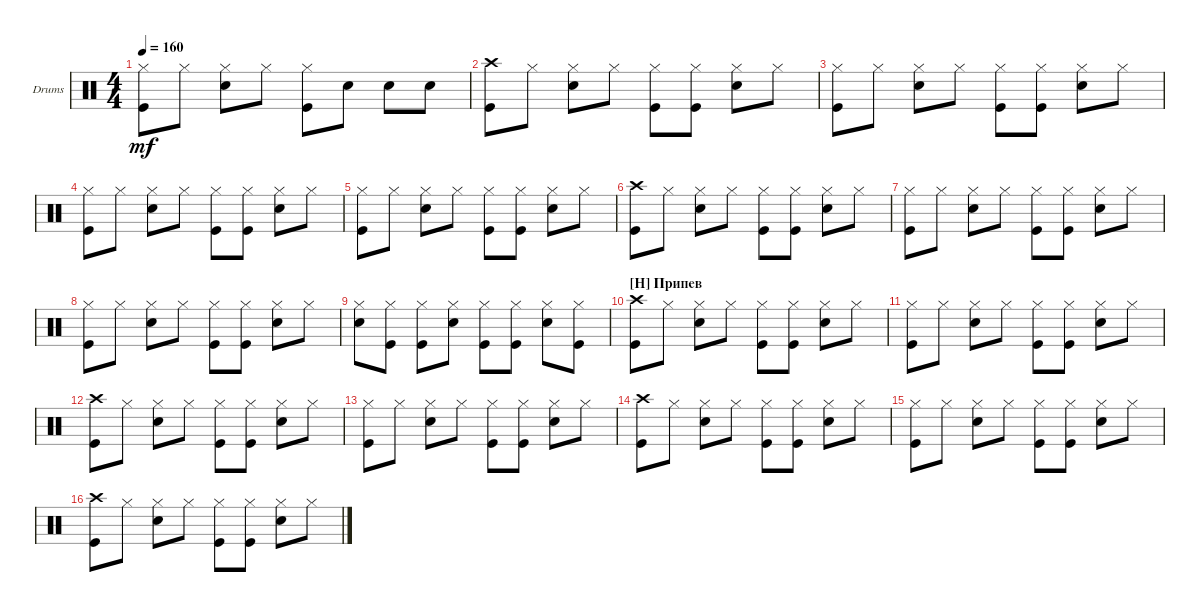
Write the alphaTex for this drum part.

\bracketExtendMode groupsimilarinstruments
\firstSystemTrackNameOrientation horizontal
\otherSystemsTrackNameOrientation horizontal
\track ("Drumkit" "Drums") {instrument percussion}
\staff {score}
\articulation defaults
\ts (4 4)
\tempo 160
\clef neutral
\ks c
("Kick (hit)" "Hi-Hat (closed)").8{dy mf} "Hi-Hat (closed)".8 ("Hi-Hat (closed)" "Snare (hit) 2").8 "Hi-Hat (closed)".8 ("Kick (hit)" "Hi-Hat (closed)").8 "Snare (hit) 2".8 "Snare (hit) 2".8 "Snare (hit) 2".8 |
("Kick (hit)" "Crash high (hit)").8 "Hi-Hat (closed)".8 ("Hi-Hat (closed)" "Snare (hit) 2").8 "Hi-Hat (closed)".8 ("Kick (hit)" "Hi-Hat (closed)").8 ("Hi-Hat (closed)" "Kick (hit)").8 ("Hi-Hat (closed)" "Snare (hit) 2").8 "Hi-Hat (closed)".8 |
("Kick (hit)" "Hi-Hat (closed)").8 "Hi-Hat (closed)".8 ("Hi-Hat (closed)" "Snare (hit) 2").8 "Hi-Hat (closed)".8 ("Kick (hit)" "Hi-Hat (closed)").8 ("Hi-Hat (closed)" "Kick (hit)").8 ("Hi-Hat (closed)" "Snare (hit) 2").8 "Hi-Hat (closed)".8 |
("Kick (hit)" "Hi-Hat (closed)").8 "Hi-Hat (closed)".8 ("Hi-Hat (closed)" "Snare (hit) 2").8 "Hi-Hat (closed)".8 ("Kick (hit)" "Hi-Hat (closed)").8 ("Hi-Hat (closed)" "Kick (hit)").8 ("Hi-Hat (closed)" "Snare (hit) 2").8 "Hi-Hat (closed)".8 |
("Kick (hit)" "Hi-Hat (closed)").8 "Hi-Hat (closed)".8 ("Hi-Hat (closed)" "Snare (hit) 2").8 "Hi-Hat (closed)".8 ("Kick (hit)" "Hi-Hat (closed)").8 ("Hi-Hat (closed)" "Kick (hit)").8 ("Hi-Hat (closed)" "Snare (hit) 2").8 "Hi-Hat (closed)".8 |
("Kick (hit)" "Crash high (hit)").8 "Hi-Hat (closed)".8 ("Hi-Hat (closed)" "Snare (hit) 2").8 "Hi-Hat (closed)".8 ("Kick (hit)" "Hi-Hat (closed)").8 ("Hi-Hat (closed)" "Kick (hit)").8 ("Hi-Hat (closed)" "Snare (hit) 2").8 "Hi-Hat (closed)".8 |
("Kick (hit)" "Hi-Hat (closed)").8 "Hi-Hat (closed)".8 ("Hi-Hat (closed)" "Snare (hit) 2").8 "Hi-Hat (closed)".8 ("Kick (hit)" "Hi-Hat (closed)").8 ("Hi-Hat (closed)" "Kick (hit)").8 ("Hi-Hat (closed)" "Snare (hit) 2").8 "Hi-Hat (closed)".8 |
("Kick (hit)" "Hi-Hat (closed)").8 "Hi-Hat (closed)".8 ("Hi-Hat (closed)" "Snare (hit) 2").8 "Hi-Hat (closed)".8 ("Kick (hit)" "Hi-Hat (closed)").8 ("Hi-Hat (closed)" "Kick (hit)").8 ("Hi-Hat (closed)" "Snare (hit) 2").8 "Hi-Hat (closed)".8 |
("Hi-Hat (closed)" "Snare (hit) 2").8 ("Hi-Hat (closed)" "Kick (hit)").8 ("Hi-Hat (closed)" "Kick (hit)").8 ("Hi-Hat (closed)" "Snare (hit) 2").8 ("Kick (hit)" "Hi-Hat (closed)").8 ("Hi-Hat (closed)" "Kick (hit)").8 ("Hi-Hat (closed)" "Snare (hit) 2").8 ("Hi-Hat (closed)" "Kick (hit)").8 |
\section ("H" "Припев")
("Kick (hit)" "Crash high (hit)").8 "Hi-Hat (closed)".8 ("Hi-Hat (closed)" "Snare (hit) 2").8 "Hi-Hat (closed)".8 ("Kick (hit)" "Hi-Hat (closed)").8 ("Hi-Hat (closed)" "Kick (hit)").8 ("Hi-Hat (closed)" "Snare (hit) 2").8 "Hi-Hat (closed)".8 |
("Kick (hit)" "Hi-Hat (closed)").8 "Hi-Hat (closed)".8 ("Hi-Hat (closed)" "Snare (hit) 2").8 "Hi-Hat (closed)".8 ("Kick (hit)" "Hi-Hat (closed)").8 ("Hi-Hat (closed)" "Kick (hit)").8 ("Hi-Hat (closed)" "Snare (hit) 2").8 "Hi-Hat (closed)".8 |
("Kick (hit)" "Crash high (hit)").8 "Hi-Hat (closed)".8 ("Hi-Hat (closed)" "Snare (hit) 2").8 "Hi-Hat (closed)".8 ("Kick (hit)" "Hi-Hat (closed)").8 ("Hi-Hat (closed)" "Kick (hit)").8 ("Hi-Hat (closed)" "Snare (hit) 2").8 "Hi-Hat (closed)".8 |
("Kick (hit)" "Hi-Hat (closed)").8 "Hi-Hat (closed)".8 ("Hi-Hat (closed)" "Snare (hit) 2").8 "Hi-Hat (closed)".8 ("Kick (hit)" "Hi-Hat (closed)").8 ("Hi-Hat (closed)" "Kick (hit)").8 ("Hi-Hat (closed)" "Snare (hit) 2").8 "Hi-Hat (closed)".8 |
("Kick (hit)" "Crash high (hit)").8 "Hi-Hat (closed)".8 ("Hi-Hat (closed)" "Snare (hit) 2").8 "Hi-Hat (closed)".8 ("Kick (hit)" "Hi-Hat (closed)").8 ("Hi-Hat (closed)" "Kick (hit)").8 ("Hi-Hat (closed)" "Snare (hit) 2").8 "Hi-Hat (closed)".8 |
("Kick (hit)" "Hi-Hat (closed)").8 "Hi-Hat (closed)".8 ("Hi-Hat (closed)" "Snare (hit) 2").8 "Hi-Hat (closed)".8 ("Kick (hit)" "Hi-Hat (closed)").8 ("Hi-Hat (closed)" "Kick (hit)").8 ("Hi-Hat (closed)" "Snare (hit) 2").8 "Hi-Hat (closed)".8 |
("Kick (hit)" "Crash high (hit)").8 "Hi-Hat (closed)".8 ("Hi-Hat (closed)" "Snare (hit) 2").8 "Hi-Hat (closed)".8 ("Kick (hit)" "Hi-Hat (closed)").8 ("Hi-Hat (closed)" "Kick (hit)").8 ("Hi-Hat (closed)" "Snare (hit) 2").8 "Hi-Hat (closed)".8
